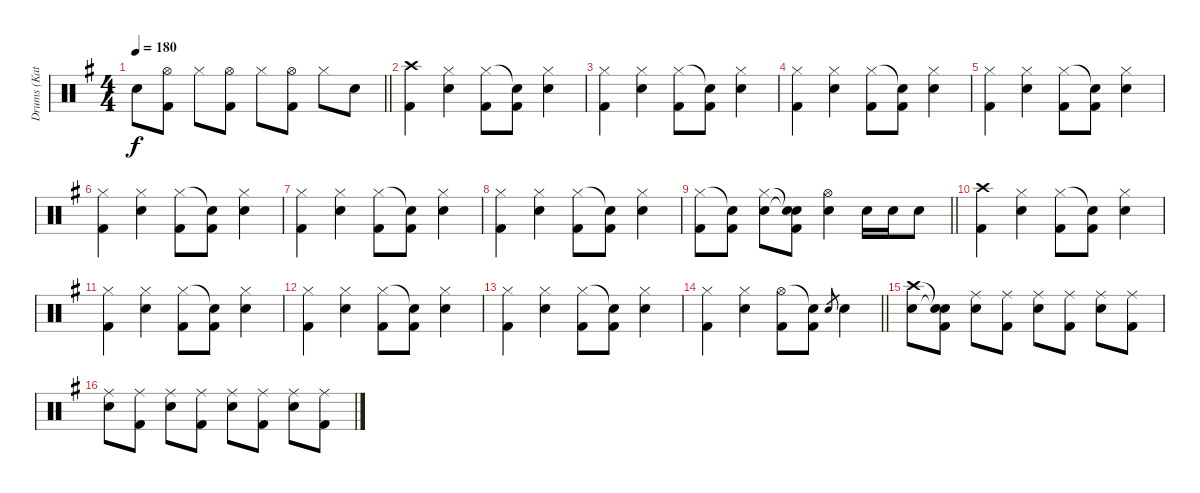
\track ("Drums (Katsuji)" "Drums (Kat") {instrument percussion}
\staff {score}
\articulation defaults
\ts (4 4)
\tempo 180
\clef neutral
\barLineRight lightlight
\ks g "Snare (hit) 2".8{dy f}
("Hi-Hat (open)" "Kick (hit) 2").8 "Hi-Hat (closed)".8 ("Hi-Hat (open)" "Kick (hit) 2").8 "Hi-Hat (closed)".8 ("Hi-Hat (open)" "Kick (hit) 2").8 "Hi-Hat (closed)".8 "Snare (hit) 2".8 |
("Crash high (hit)" "Kick (hit) 2").4 ("Hi-Hat (closed)" "Snare (hit) 2").4 ("Hi-Hat (closed)" "Kick (hit) 2").8 ("Snare (hit)"{t} "Kick (hit) 2").8 ("Hi-Hat (closed)" "Snare (hit) 2").4 |
("Hi-Hat (closed)" "Kick (hit) 2").4 ("Hi-Hat (closed)" "Snare (hit) 2").4 ("Hi-Hat (closed)" "Kick (hit) 2").8 ("Snare (hit)"{t} "Kick (hit) 2").8 ("Hi-Hat (closed)" "Snare (hit) 2").4 |
("Hi-Hat (closed)" "Kick (hit) 2").4 ("Hi-Hat (closed)" "Snare (hit) 2").4 ("Hi-Hat (closed)" "Kick (hit) 2").8 ("Snare (hit)"{t} "Kick (hit) 2").8 ("Hi-Hat (closed)" "Snare (hit) 2").4 |
("Hi-Hat (closed)" "Kick (hit) 2").4 ("Hi-Hat (closed)" "Snare (hit) 2").4 ("Hi-Hat (closed)" "Kick (hit) 2").8 ("Snare (hit)"{t} "Kick (hit) 2").8 ("Hi-Hat (closed)" "Snare (hit) 2").4 |
("Hi-Hat (closed)" "Kick (hit) 2").4 ("Hi-Hat (closed)" "Snare (hit) 2").4 ("Hi-Hat (closed)" "Kick (hit) 2").8 ("Snare (hit)"{t} "Kick (hit) 2").8 ("Hi-Hat (closed)" "Snare (hit) 2").4 |
("Hi-Hat (closed)" "Kick (hit) 2").4 ("Hi-Hat (closed)" "Snare (hit) 2").4 ("Hi-Hat (closed)" "Kick (hit) 2").8 ("Snare (hit)"{t} "Kick (hit) 2").8 ("Hi-Hat (closed)" "Snare (hit) 2").4 |
("Hi-Hat (closed)" "Kick (hit) 2").4 ("Hi-Hat (closed)" "Snare (hit) 2").4 ("Hi-Hat (closed)" "Kick (hit) 2").8 ("Snare (hit)"{t} "Kick (hit) 2").8 ("Hi-Hat (closed)" "Snare (hit) 2").4 |
\barLineRight lightlight
("Hi-Hat (closed)" "Kick (hit) 2").8 ("Snare (hit)"{t} "Kick (hit) 2").8 ("Hi-Hat (closed)" "Snare (hit) 2").8 ("Snare (hit)"{t} "Snare (hit)"{t} "Kick (hit) 2").8 ("Hi-Hat (open)" "Snare (hit) 2").4 "Snare (hit) 2".16 "Snare (hit) 2".16 "Snare (hit) 2".8 |
("Crash high (hit)" "Kick (hit) 2").4 ("Hi-Hat (closed)" "Snare (hit) 2").4 ("Hi-Hat (closed)" "Kick (hit) 2").8 ("Snare (hit)"{t} "Kick (hit) 2").8 ("Hi-Hat (closed)" "Snare (hit) 2").4 |
("Hi-Hat (closed)" "Kick (hit) 2").4 ("Hi-Hat (closed)" "Snare (hit) 2").4 ("Hi-Hat (closed)" "Kick (hit) 2").8 ("Snare (hit)"{t} "Kick (hit) 2").8 ("Hi-Hat (closed)" "Snare (hit) 2").4 |
("Hi-Hat (closed)" "Kick (hit) 2").4 ("Hi-Hat (closed)" "Snare (hit) 2").4 ("Hi-Hat (closed)" "Kick (hit) 2").8 ("Snare (hit)"{t} "Kick (hit) 2").8 ("Hi-Hat (closed)" "Snare (hit) 2").4 |
("Hi-Hat (closed)" "Kick (hit) 2").4 ("Hi-Hat (closed)" "Snare (hit) 2").4 ("Hi-Hat (closed)" "Kick (hit) 2").8 ("Snare (hit)"{t} "Kick (hit) 2").8 ("Hi-Hat (closed)" "Snare (hit) 2").4 |
\barLineRight lightlight
("Hi-Hat (closed)" "Kick (hit) 2").4 ("Hi-Hat (closed)" "Snare (hit) 2").4 ("Hi-Hat (open)" "Kick (hit) 2").8 ("Snare (hit)"{t} "Kick (hit) 2").8 "Snare (hit) 2".8{gr} "Snare (hit) 2".4 |
("Crash high (hit)" "Snare (hit) 2").8 ("Snare (hit)"{t} "Snare (hit)"{t} "Kick (hit) 2").8 ("Ride (middle)" "Snare (hit) 2").8 ("Ride (middle)" "Kick (hit) 2").8 ("Ride (middle)" "Snare (hit) 2").8 ("Ride (middle)" "Kick (hit) 2").8 ("Ride (middle)" "Snare (hit) 2").8 ("Ride (middle)" "Kick (hit) 2").8 |
("Ride (middle)" "Snare (hit) 2").8 ("Ride (middle)" "Kick (hit) 2").8 ("Ride (middle)" "Snare (hit) 2").8 ("Ride (middle)" "Kick (hit) 2").8 ("Ride (middle)" "Snare (hit) 2").8 ("Ride (middle)" "Kick (hit) 2").8 ("Ride (middle)" "Snare (hit) 2").8 ("Ride (middle)" "Kick (hit) 2").8
